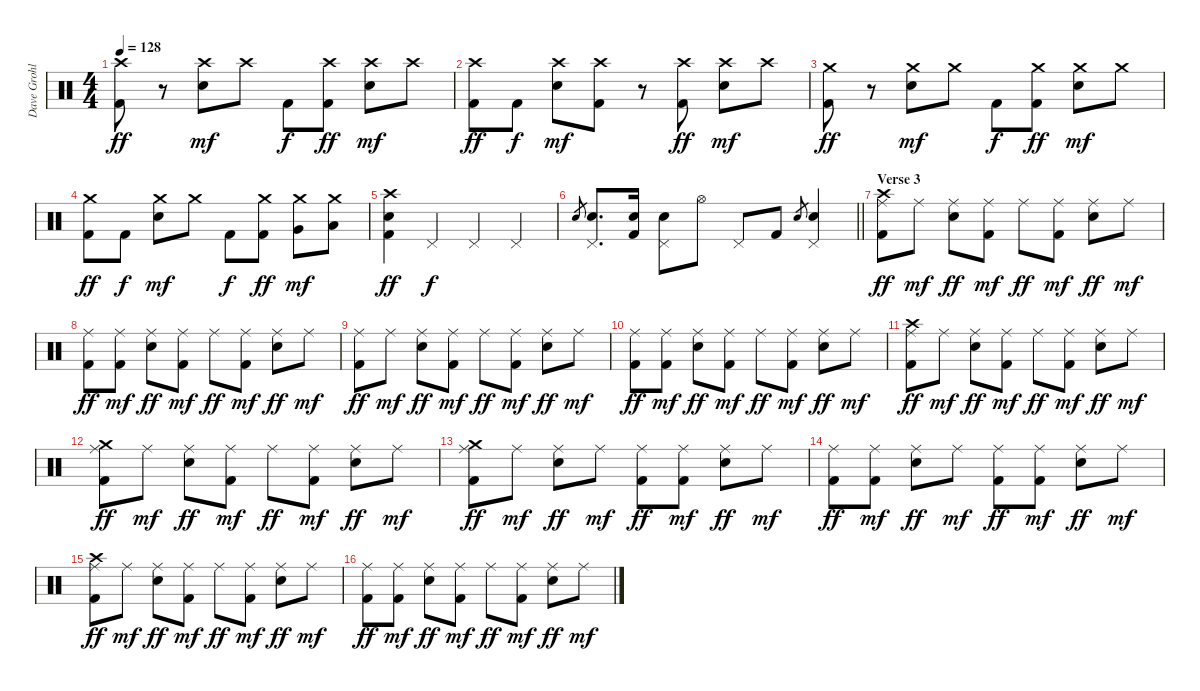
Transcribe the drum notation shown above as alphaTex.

\track ("Dave Grohl" "Dave Grohl") {instrument percussion}
\staff {score}
\articulation defaults
\ts (4 4)
\tempo 128
\clef neutral
\ks c
("Crash high (hit)" "Kick (hit) 2").8{dy ff} r.8 ("Crash high (hit)" "Snare (hit) 2").8{dy mf} "Crash high (hit)".8 "Kick (hit) 2".8{dy f} ("Crash high (hit)" "Kick (hit) 2").8{dy ff} ("Crash high (hit)" "Snare (hit) 2").8{dy mf} "Crash high (hit)".8 |
("Crash high (hit)" "Kick (hit) 2").8{dy ff} "Kick (hit) 2".8{dy f} ("Crash high (hit)" "Snare (hit) 2").8{dy mf} ("Crash high (hit)" "Kick (hit) 2").8 r.8 ("Crash high (hit)" "Kick (hit) 2").8{dy ff} ("Crash high (hit)" "Snare (hit) 2").8{dy mf} "Crash high (hit)".8 |
("Crash medium (hit)" "Kick (hit) 2").8{dy ff} r.8 ("Crash medium (hit)" "Snare (hit) 2").8{dy mf} "Crash medium (hit)".8 "Kick (hit) 2".8{dy f} ("Crash medium (hit)" "Kick (hit) 2").8{dy ff} ("Crash medium (hit)" "Snare (hit) 2").8{dy mf} "Crash medium (hit)".8 |
("Crash medium (hit)" "Kick (hit) 2").8{dy ff} "Kick (hit) 2".8{dy f} ("Crash medium (hit)" "Snare (hit) 2").8{dy mf} "Crash medium (hit)".8 "Kick (hit) 2".8{dy f} ("Crash medium (hit)" "Kick (hit) 2").8{dy ff} ("Crash medium (hit)" "Very Low Tom (hit)").8{dy mf} ("Crash medium (hit)" "Low Floor Tom (hit)").8 |
("Crash high (hit)" "Snare (hit) 2" "Kick (hit) 2").4{dy ff} "Pedal Hi-Hat (hit)".4{dy f} "Pedal Hi-Hat (hit)".4 "Pedal Hi-Hat (hit)".4 |
\barLineRight lightlight "Snare (hit) 2".8{gr}
("Pedal Hi-Hat (hit)" "Snare (hit) 2").8{d} ("Snare (hit) 2" "Kick (hit) 2").16 ("Pedal Hi-Hat (hit)" "Snare (hit) 2").8 "Hi-Hat (open)".8 "Pedal Hi-Hat (hit)".8 "Kick (hit) 2".8 "Snare (hit) 2".8{gr} ("Pedal Hi-Hat (hit)" "Snare (hit) 2").4 |
\section ("" "Verse 3")
("Crash high (hit)" "Ride (middle)" "Kick (hit) 2").8{dy ff} "Ride (middle)".8{dy mf} ("Ride (middle)" "Snare (hit) 2").8{dy ff} ("Ride (middle)" "Kick (hit) 2").8{dy mf} "Ride (middle)".8{dy ff} ("Ride (middle)" "Kick (hit) 2").8{dy mf} ("Ride (middle)" "Snare (hit) 2").8{dy ff} "Ride (middle)".8{dy mf} |
("Ride (middle)" "Kick (hit) 2").8{dy ff} ("Ride (middle)" "Kick (hit) 2").8{dy mf} ("Ride (middle)" "Snare (hit) 2").8{dy ff} ("Ride (middle)" "Kick (hit) 2").8{dy mf} "Ride (middle)".8{dy ff} ("Ride (middle)" "Kick (hit) 2").8{dy mf} ("Ride (middle)" "Snare (hit) 2").8{dy ff} "Ride (middle)".8{dy mf} |
("Ride (middle)" "Kick (hit) 2").8{dy ff} "Ride (middle)".8{dy mf} ("Ride (middle)" "Snare (hit) 2").8{dy ff} ("Ride (middle)" "Kick (hit) 2").8{dy mf} "Ride (middle)".8{dy ff} ("Ride (middle)" "Kick (hit) 2").8{dy mf} ("Ride (middle)" "Snare (hit) 2").8{dy ff} "Ride (middle)".8{dy mf} |
("Ride (middle)" "Kick (hit) 2").8{dy ff} ("Ride (middle)" "Kick (hit) 2").8{dy mf} ("Ride (middle)" "Snare (hit) 2").8{dy ff} ("Ride (middle)" "Kick (hit) 2").8{dy mf} "Ride (middle)".8{dy ff} ("Ride (middle)" "Kick (hit) 2").8{dy mf} ("Ride (middle)" "Snare (hit) 2").8{dy ff} "Ride (middle)".8{dy mf} |
("Crash high (hit)" "Ride (middle)" "Kick (hit) 2").8{dy ff} "Ride (middle)".8{dy mf} ("Ride (middle)" "Snare (hit) 2").8{dy ff} ("Ride (middle)" "Kick (hit) 2").8{dy mf} "Ride (middle)".8{dy ff} ("Ride (middle)" "Kick (hit) 2").8{dy mf} ("Ride (middle)" "Snare (hit) 2").8{dy ff} "Ride (middle)".8{dy mf} |
("Crash medium (hit)" "Ride (middle)" "Kick (hit) 2").8{dy ff} "Ride (middle)".8{dy mf} ("Ride (middle)" "Snare (hit) 2").8{dy ff} ("Ride (middle)" "Kick (hit) 2").8{dy mf} "Ride (middle)".8{dy ff} ("Ride (middle)" "Kick (hit) 2").8{dy mf} ("Ride (middle)" "Snare (hit) 2").8{dy ff} "Ride (middle)".8{dy mf} |
("Crash medium (hit)" "Ride (middle)" "Kick (hit) 2").8{dy ff} "Ride (middle)".8{dy mf} ("Ride (middle)" "Snare (hit) 2").8{dy ff} "Ride (middle)".8{dy mf} ("Ride (middle)" "Kick (hit) 2").8{dy ff} ("Ride (middle)" "Kick (hit) 2").8{dy mf} ("Ride (middle)" "Snare (hit) 2").8{dy ff} "Ride (middle)".8{dy mf} |
("Ride (middle)" "Kick (hit) 2").8{dy ff} ("Ride (middle)" "Kick (hit) 2").8{dy mf} ("Ride (middle)" "Snare (hit) 2").8{dy ff} "Ride (middle)".8{dy mf} ("Ride (middle)" "Kick (hit) 2").8{dy ff} ("Ride (middle)" "Kick (hit) 2").8{dy mf} ("Ride (middle)" "Snare (hit) 2").8{dy ff} "Ride (middle)".8{dy mf} |
("Crash high (hit)" "Ride (middle)" "Kick (hit) 2").8{dy ff} "Ride (middle)".8{dy mf} ("Ride (middle)" "Snare (hit) 2").8{dy ff} ("Ride (middle)" "Kick (hit) 2").8{dy mf} "Ride (middle)".8{dy ff} ("Ride (middle)" "Kick (hit) 2").8{dy mf} ("Ride (middle)" "Snare (hit) 2").8{dy ff} "Ride (middle)".8{dy mf} |
("Ride (middle)" "Kick (hit) 2").8{dy ff} ("Ride (middle)" "Kick (hit) 2").8{dy mf} ("Ride (middle)" "Snare (hit) 2").8{dy ff} ("Ride (middle)" "Kick (hit) 2").8{dy mf} "Ride (middle)".8{dy ff} ("Ride (middle)" "Kick (hit) 2").8{dy mf} ("Ride (middle)" "Snare (hit) 2").8{dy ff} "Ride (middle)".8{dy mf}
